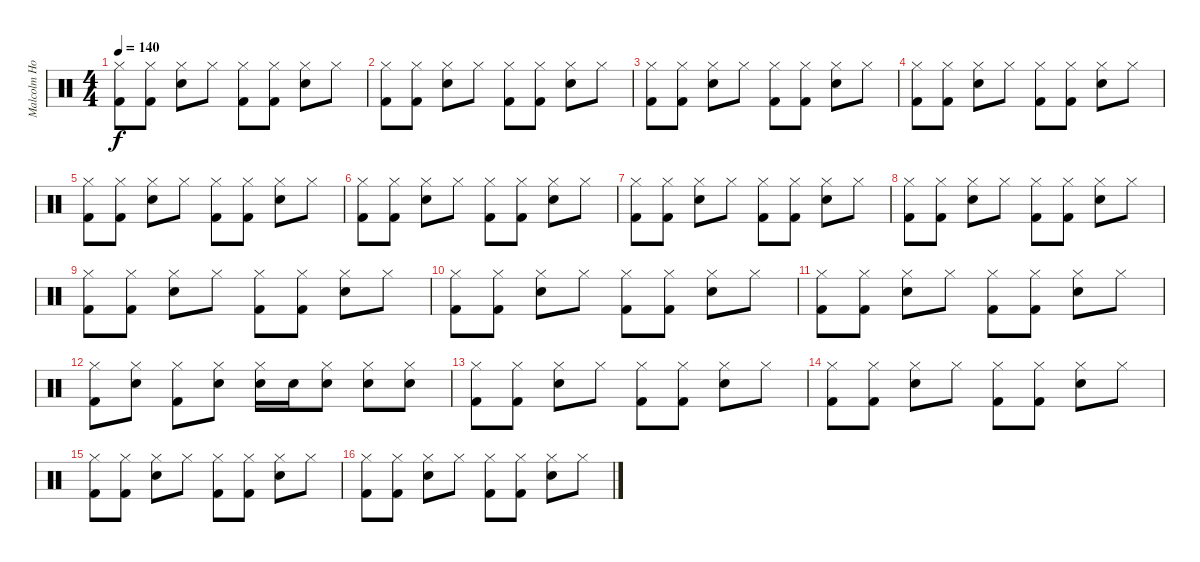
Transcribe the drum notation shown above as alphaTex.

\track ("Malcolm Holmes - Drums" "Malcolm Ho") {instrument percussion}
\staff {score}
\articulation defaults
\ts (4 4)
\tempo 140
\clef neutral
\ks c
("Kick (hit) 2" "Hi-Hat (closed)").8{dy f} ("Kick (hit) 2" "Hi-Hat (closed)").8 ("Snare (hit) 2" "Hi-Hat (closed)").8 "Hi-Hat (closed)".8 ("Kick (hit) 2" "Hi-Hat (closed)").8 ("Kick (hit) 2" "Hi-Hat (closed)").8 ("Snare (hit) 2" "Hi-Hat (closed)").8 "Hi-Hat (closed)".8 |
("Kick (hit) 2" "Hi-Hat (closed)").8 ("Kick (hit) 2" "Hi-Hat (closed)").8 ("Snare (hit) 2" "Hi-Hat (closed)").8 "Hi-Hat (closed)".8 ("Kick (hit) 2" "Hi-Hat (closed)").8 ("Kick (hit) 2" "Hi-Hat (closed)").8 ("Snare (hit) 2" "Hi-Hat (closed)").8 "Hi-Hat (closed)".8 |
("Kick (hit) 2" "Hi-Hat (closed)").8 ("Kick (hit) 2" "Hi-Hat (closed)").8 ("Snare (hit) 2" "Hi-Hat (closed)").8 "Hi-Hat (closed)".8 ("Kick (hit) 2" "Hi-Hat (closed)").8 ("Kick (hit) 2" "Hi-Hat (closed)").8 ("Snare (hit) 2" "Hi-Hat (closed)").8 "Hi-Hat (closed)".8 |
("Kick (hit) 2" "Hi-Hat (closed)").8 ("Kick (hit) 2" "Hi-Hat (closed)").8 ("Snare (hit) 2" "Hi-Hat (closed)").8 "Hi-Hat (closed)".8 ("Kick (hit) 2" "Hi-Hat (closed)").8 ("Kick (hit) 2" "Hi-Hat (closed)").8 ("Snare (hit) 2" "Hi-Hat (closed)").8 "Hi-Hat (closed)".8 |
("Kick (hit) 2" "Hi-Hat (closed)").8 ("Kick (hit) 2" "Hi-Hat (closed)").8 ("Snare (hit) 2" "Hi-Hat (closed)").8 "Hi-Hat (closed)".8 ("Kick (hit) 2" "Hi-Hat (closed)").8 ("Kick (hit) 2" "Hi-Hat (closed)").8 ("Snare (hit) 2" "Hi-Hat (closed)").8 "Hi-Hat (closed)".8 |
("Kick (hit) 2" "Hi-Hat (closed)").8 ("Kick (hit) 2" "Hi-Hat (closed)").8 ("Snare (hit) 2" "Hi-Hat (closed)").8 "Hi-Hat (closed)".8 ("Kick (hit) 2" "Hi-Hat (closed)").8 ("Kick (hit) 2" "Hi-Hat (closed)").8 ("Snare (hit) 2" "Hi-Hat (closed)").8 "Hi-Hat (closed)".8 |
("Kick (hit) 2" "Hi-Hat (closed)").8 ("Kick (hit) 2" "Hi-Hat (closed)").8 ("Snare (hit) 2" "Hi-Hat (closed)").8 "Hi-Hat (closed)".8 ("Kick (hit) 2" "Hi-Hat (closed)").8 ("Kick (hit) 2" "Hi-Hat (closed)").8 ("Snare (hit) 2" "Hi-Hat (closed)").8 "Hi-Hat (closed)".8 |
("Kick (hit) 2" "Hi-Hat (closed)").8 ("Kick (hit) 2" "Hi-Hat (closed)").8 ("Snare (hit) 2" "Hi-Hat (closed)").8 "Hi-Hat (closed)".8 ("Kick (hit) 2" "Hi-Hat (closed)").8 ("Kick (hit) 2" "Hi-Hat (closed)").8 ("Snare (hit) 2" "Hi-Hat (closed)").8 "Hi-Hat (closed)".8 |
("Kick (hit) 2" "Hi-Hat (closed)").8 ("Kick (hit) 2" "Hi-Hat (closed)").8 ("Snare (hit) 2" "Hi-Hat (closed)").8 "Hi-Hat (closed)".8 ("Kick (hit) 2" "Hi-Hat (closed)").8 ("Kick (hit) 2" "Hi-Hat (closed)").8 ("Snare (hit) 2" "Hi-Hat (closed)").8 "Hi-Hat (closed)".8 |
("Kick (hit) 2" "Hi-Hat (closed)").8 ("Kick (hit) 2" "Hi-Hat (closed)").8 ("Snare (hit) 2" "Hi-Hat (closed)").8 "Hi-Hat (closed)".8 ("Kick (hit) 2" "Hi-Hat (closed)").8 ("Kick (hit) 2" "Hi-Hat (closed)").8 ("Snare (hit) 2" "Hi-Hat (closed)").8 "Hi-Hat (closed)".8 |
("Kick (hit) 2" "Hi-Hat (closed)").8 ("Kick (hit) 2" "Hi-Hat (closed)").8 ("Snare (hit) 2" "Hi-Hat (closed)").8 "Hi-Hat (closed)".8 ("Kick (hit) 2" "Hi-Hat (closed)").8 ("Kick (hit) 2" "Hi-Hat (closed)").8 ("Snare (hit) 2" "Hi-Hat (closed)").8 "Hi-Hat (closed)".8 |
("Kick (hit) 2" "Hi-Hat (closed)").8 ("Snare (hit) 2" "Hi-Hat (closed)").8 ("Kick (hit) 2" "Hi-Hat (closed)").8 ("Snare (hit) 2" "Hi-Hat (closed)").8 ("Snare (hit) 2" "Hi-Hat (closed)").16 "Snare (hit) 2".16 ("Snare (hit) 2" "Hi-Hat (closed)").8 ("Snare (hit) 2" "Hi-Hat (closed)").8 ("Snare (hit) 2" "Hi-Hat (closed)").8 |
("Kick (hit) 2" "Hi-Hat (closed)").8 ("Kick (hit) 2" "Hi-Hat (closed)").8 ("Snare (hit) 2" "Hi-Hat (closed)").8 "Hi-Hat (closed)".8 ("Kick (hit) 2" "Hi-Hat (closed)").8 ("Kick (hit) 2" "Hi-Hat (closed)").8 ("Snare (hit) 2" "Hi-Hat (closed)").8 "Hi-Hat (closed)".8 |
("Kick (hit) 2" "Hi-Hat (closed)").8 ("Kick (hit) 2" "Hi-Hat (closed)").8 ("Snare (hit) 2" "Hi-Hat (closed)").8 "Hi-Hat (closed)".8 ("Kick (hit) 2" "Hi-Hat (closed)").8 ("Kick (hit) 2" "Hi-Hat (closed)").8 ("Snare (hit) 2" "Hi-Hat (closed)").8 "Hi-Hat (closed)".8 |
("Kick (hit) 2" "Hi-Hat (closed)").8 ("Kick (hit) 2" "Hi-Hat (closed)").8 ("Snare (hit) 2" "Hi-Hat (closed)").8 "Hi-Hat (closed)".8 ("Kick (hit) 2" "Hi-Hat (closed)").8 ("Kick (hit) 2" "Hi-Hat (closed)").8 ("Snare (hit) 2" "Hi-Hat (closed)").8 "Hi-Hat (closed)".8 |
("Kick (hit) 2" "Hi-Hat (closed)").8 ("Kick (hit) 2" "Hi-Hat (closed)").8 ("Snare (hit) 2" "Hi-Hat (closed)").8 "Hi-Hat (closed)".8 ("Kick (hit) 2" "Hi-Hat (closed)").8 ("Kick (hit) 2" "Hi-Hat (closed)").8 ("Snare (hit) 2" "Hi-Hat (closed)").8 "Hi-Hat (closed)".8
